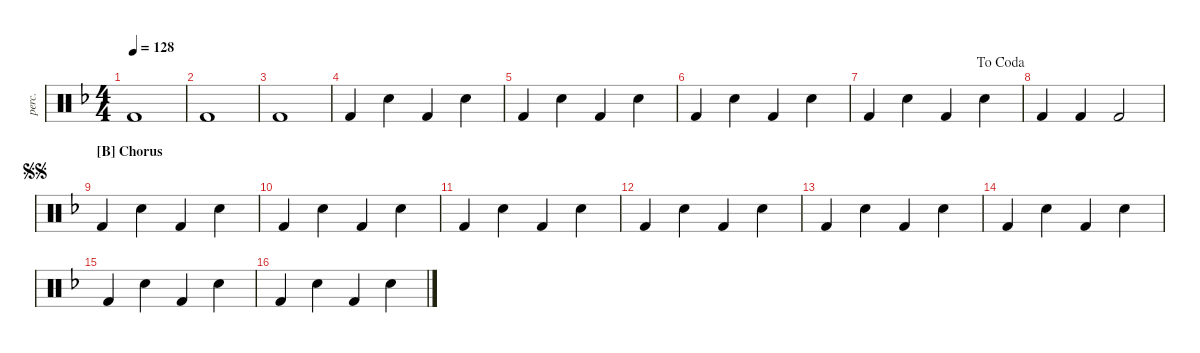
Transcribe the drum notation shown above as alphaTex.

\defaultSystemsLayout 2
\hideDynamics
\bracketExtendMode groupsimilarinstruments
\otherSystemsTrackNameOrientation horizontal
\track ("Guitar Percussion" "perc.") {instrument percussion}
\staff {score}
\articulation defaults
\ts (4 4)
\scale
1.04549
\tempo 128
\accidentals auto
\clef neutral
\ottava regular
\simile none
\ks dminor "Kick (hit) 2"{acc forcenatural}.1{dy mf}
|
\scale
0.954505 "Kick (hit) 2"{acc forcenatural}.1 |
\scale
1.04549 "Kick (hit) 2"{acc forcenatural}.1 |
\scale
0.954505 "Kick (hit) 2"{acc forcenatural}.4 "Snare (hit) 2"{acc forcenatural}.4 "Kick (hit) 2"{acc forcenatural}.4 "Snare (hit) 2"{acc forcenatural}.4 |
\scale
1.04549 "Kick (hit) 2"{acc forcenatural}.4 "Snare (hit) 2"{acc forcenatural}.4 "Kick (hit) 2"{acc forcenatural}.4 "Snare (hit) 2"{acc forcenatural}.4 |
\scale
0.954505 "Kick (hit) 2"{acc forcenatural}.4 "Snare (hit) 2"{acc forcenatural}.4 "Kick (hit) 2"{acc forcenatural}.4 "Snare (hit) 2"{acc forcenatural}.4 |
\scale
1.04107
\jump dacoda "Kick (hit) 2"{acc forcenatural}.4 "Snare (hit) 2"{acc forcenatural}.4 "Kick (hit) 2"{acc forcenatural}.4 "Snare (hit) 2"{acc forcenatural}.4
|
\scale
0.958926 "Kick (hit) 2"{acc forcenatural}.4 "Kick (hit) 2"{acc forcenatural}.4 "Kick (hit) 2"{acc forcenatural}.2 |
\section ("B" "Chorus")
\scale
1.04549
\jump segnosegno "Kick (hit) 2"{acc forcenatural}.4 "Snare (hit) 2"{acc forcenatural}.4 "Kick (hit) 2"{acc forcenatural}.4 "Snare (hit) 2"{acc forcenatural}.4
|
\scale
0.954505 "Kick (hit) 2"{acc forcenatural}.4 "Snare (hit) 2"{acc forcenatural}.4 "Kick (hit) 2"{acc forcenatural}.4 "Snare (hit) 2"{acc forcenatural}.4 |
\scale
1.04549 "Kick (hit) 2"{acc forcenatural}.4 "Snare (hit) 2"{acc forcenatural}.4 "Kick (hit) 2"{acc forcenatural}.4 "Snare (hit) 2"{acc forcenatural}.4 |
\scale
0.954505 "Kick (hit) 2"{acc forcenatural}.4 "Snare (hit) 2"{acc forcenatural}.4 "Kick (hit) 2"{acc forcenatural}.4 "Snare (hit) 2"{acc forcenatural}.4 |
\scale
1.04549 "Kick (hit) 2"{acc forcenatural}.4 "Snare (hit) 2"{acc forcenatural}.4 "Kick (hit) 2"{acc forcenatural}.4 "Snare (hit) 2"{acc forcenatural}.4 |
\scale
0.954505 "Kick (hit) 2"{acc forcenatural}.4 "Snare (hit) 2"{acc forcenatural}.4 "Kick (hit) 2"{acc forcenatural}.4 "Snare (hit) 2"{acc forcenatural}.4 |
\scale
1.04549 "Kick (hit) 2"{acc forcenatural}.4 "Snare (hit) 2"{acc forcenatural}.4 "Kick (hit) 2"{acc forcenatural}.4 "Snare (hit) 2"{acc forcenatural}.4 |
\scale
0.954505 "Kick (hit) 2"{acc forcenatural}.4 "Snare (hit) 2"{acc forcenatural}.4 "Kick (hit) 2"{acc forcenatural}.4 "Snare (hit) 2"{acc forcenatural}.4
